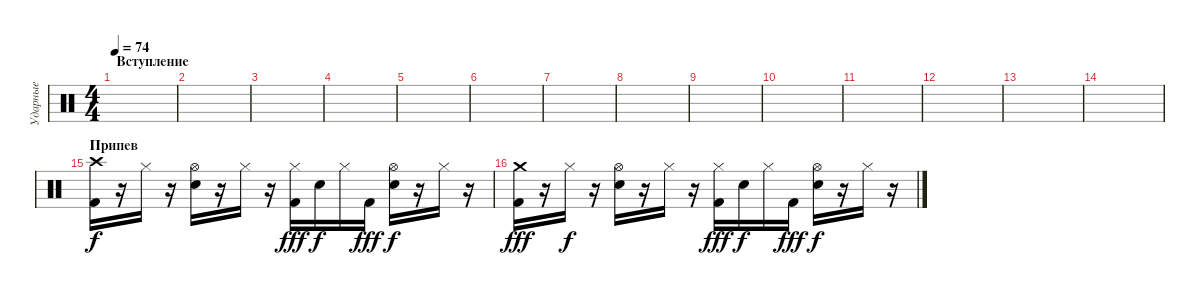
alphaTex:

\track ("Ударные" "Ударные") {instrument percussion}
\staff {score}
\articulation defaults
\ts (4 4)
\section ("" "Вступление")
\tempo 74
\clef neutral
\ks c
|
|
|
|
|
|
|
|
|
|
|
|
|
|
\section ("" "Припев")
("Crash high (hit)" "Kick (hit) 2").16 r.16 "Hi-Hat (closed)".16{dy f} r.16 ("Hi-Hat (open)" "Electric Snare (hit)").16 r.16 "Hi-Hat (closed)".16 r.16 ("Hi-Hat (closed)" "Kick (hit) 2").16{dy fff} "Electric Snare (hit)".16{dy f} "Hi-Hat (closed)".16 "Kick (hit) 2".16{dy fff} ("Hi-Hat (open)" "Electric Snare (hit)").16{dy f} r.16 "Hi-Hat (closed)".16 r.16 |
("Crash medium (hit)" "Kick (hit) 2").16{dy fff} r.16 "Hi-Hat (closed)".16{dy f} r.16 ("Hi-Hat (open)" "Electric Snare (hit)").16 r.16 "Hi-Hat (closed)".16 r.16 ("Hi-Hat (closed)" "Kick (hit) 2").16{dy fff} "Electric Snare (hit)".16{dy f} "Hi-Hat (closed)".16 "Kick (hit) 2".16{dy fff} ("Hi-Hat (open)" "Electric Snare (hit)").16{dy f} r.16 "Hi-Hat (closed)".16 r.16
